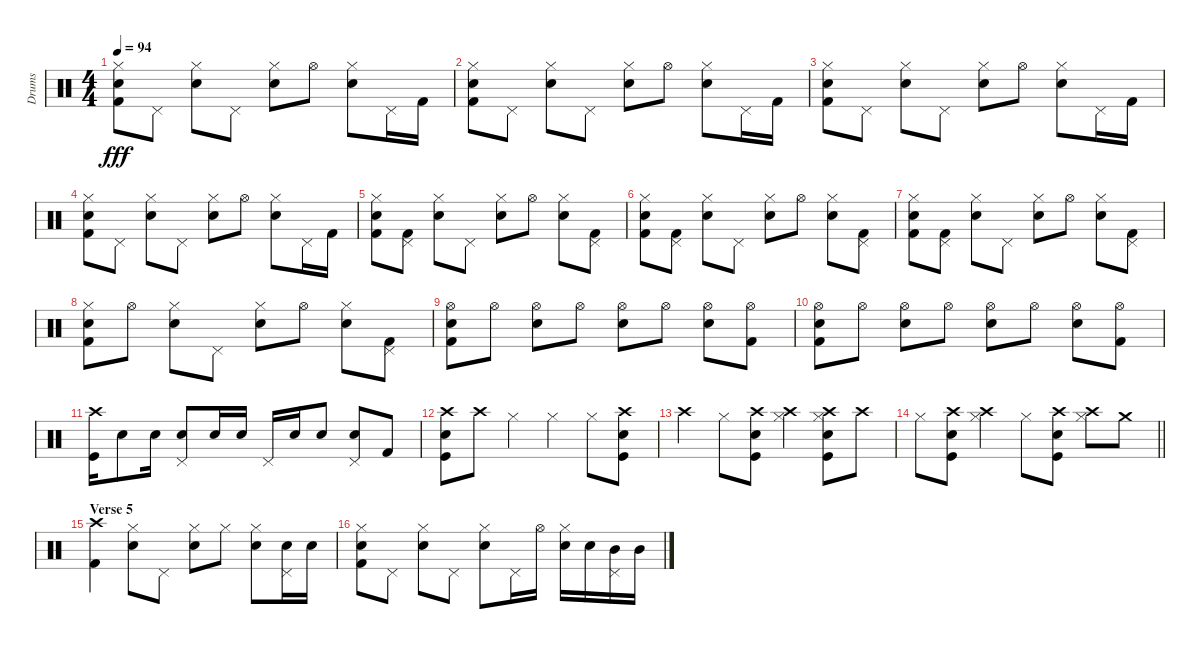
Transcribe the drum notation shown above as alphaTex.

\track ("Drums" "Drums") {instrument percussion}
\staff {score}
\articulation defaults
\ts (4 4)
\tempo 94
\clef neutral
\ks c
("Hi-Hat (closed)" "Electric Snare (hit)" "Kick (hit) 2").8{dy fff} "Pedal Hi-Hat (hit)".8 ("Hi-Hat (closed)" "Electric Snare (hit)").8 "Pedal Hi-Hat (hit)".8 ("Hi-Hat (closed)" "Electric Snare (hit)").8 "Hi-Hat (open)".8 ("Hi-Hat (closed)" "Electric Snare (hit)").8 "Pedal Hi-Hat (hit)".16 "Kick (hit) 2".16 |
("Hi-Hat (closed)" "Electric Snare (hit)" "Kick (hit) 2").8 "Pedal Hi-Hat (hit)".8 ("Hi-Hat (closed)" "Electric Snare (hit)").8 "Pedal Hi-Hat (hit)".8 ("Hi-Hat (closed)" "Electric Snare (hit)").8 "Hi-Hat (open)".8 ("Hi-Hat (closed)" "Electric Snare (hit)").8 "Pedal Hi-Hat (hit)".16 "Kick (hit) 2".16 |
("Hi-Hat (closed)" "Electric Snare (hit)" "Kick (hit) 2").8 "Pedal Hi-Hat (hit)".8 ("Hi-Hat (closed)" "Electric Snare (hit)").8 "Pedal Hi-Hat (hit)".8 ("Hi-Hat (closed)" "Electric Snare (hit)").8 "Hi-Hat (open)".8 ("Hi-Hat (closed)" "Electric Snare (hit)").8 "Pedal Hi-Hat (hit)".16 "Kick (hit) 2".16 |
("Hi-Hat (closed)" "Electric Snare (hit)" "Kick (hit) 2").8 "Pedal Hi-Hat (hit)".8 ("Hi-Hat (closed)" "Electric Snare (hit)").8 "Pedal Hi-Hat (hit)".8 ("Hi-Hat (closed)" "Electric Snare (hit)").8 "Hi-Hat (open)".8 ("Hi-Hat (closed)" "Electric Snare (hit)").8 "Pedal Hi-Hat (hit)".16 "Kick (hit) 2".16 |
("Hi-Hat (closed)" "Electric Snare (hit)" "Kick (hit) 2").8 ("Pedal Hi-Hat (hit)" "Kick (hit) 2").8 ("Hi-Hat (closed)" "Electric Snare (hit)").8 "Pedal Hi-Hat (hit)".8 ("Hi-Hat (closed)" "Electric Snare (hit)").8 "Hi-Hat (open)".8 ("Hi-Hat (closed)" "Electric Snare (hit)").8 ("Pedal Hi-Hat (hit)" "Kick (hit) 2").8 |
("Hi-Hat (closed)" "Electric Snare (hit)" "Kick (hit) 2").8 ("Pedal Hi-Hat (hit)" "Kick (hit) 2").8 ("Hi-Hat (closed)" "Electric Snare (hit)").8 "Pedal Hi-Hat (hit)".8 ("Hi-Hat (closed)" "Electric Snare (hit)").8 "Hi-Hat (open)".8 ("Hi-Hat (closed)" "Electric Snare (hit)").8 ("Pedal Hi-Hat (hit)" "Kick (hit) 2").8 |
("Hi-Hat (closed)" "Electric Snare (hit)" "Kick (hit) 2").8 ("Pedal Hi-Hat (hit)" "Kick (hit) 2").8 ("Hi-Hat (closed)" "Electric Snare (hit)").8 "Pedal Hi-Hat (hit)".8 ("Hi-Hat (closed)" "Electric Snare (hit)").8 "Hi-Hat (open)".8 ("Hi-Hat (closed)" "Electric Snare (hit)").8 ("Pedal Hi-Hat (hit)" "Kick (hit) 2").8 |
("Hi-Hat (closed)" "Electric Snare (hit)" "Kick (hit) 2").8 "Hi-Hat (open)".8 ("Hi-Hat (closed)" "Electric Snare (hit)").8 "Pedal Hi-Hat (hit)".8 ("Hi-Hat (closed)" "Electric Snare (hit)").8 "Hi-Hat (open)".8 ("Hi-Hat (closed)" "Electric Snare (hit)").8 ("Pedal Hi-Hat (hit)" "Kick (hit) 2").8 |
("Hi-Hat (open)" "Electric Snare (hit)" "Kick (hit) 2").8 "Hi-Hat (open)".8 ("Hi-Hat (open)" "Electric Snare (hit)").8 "Hi-Hat (open)".8 ("Hi-Hat (open)" "Electric Snare (hit)").8 "Hi-Hat (open)".8 ("Hi-Hat (open)" "Electric Snare (hit)").8 ("Hi-Hat (open)" "Kick (hit) 2").8 |
("Hi-Hat (open)" "Electric Snare (hit)" "Kick (hit) 2").8 "Hi-Hat (open)".8 ("Hi-Hat (open)" "Electric Snare (hit)").8 "Hi-Hat (open)".8 ("Hi-Hat (open)" "Electric Snare (hit)").8 "Hi-Hat (open)".8 ("Hi-Hat (open)" "Electric Snare (hit)").8 ("Hi-Hat (open)" "Kick (hit) 2").8 |
("Crash high (hit)" "Kick (hit)").16 "Electric Snare (hit)".8 "Electric Snare (hit)".16 ("Pedal Hi-Hat (hit)" "Electric Snare (hit)").8 "Electric Snare (hit)".16 "Electric Snare (hit)".16 "Pedal Hi-Hat (hit)".16 "Electric Snare (hit)".16 "Electric Snare (hit)".8 ("Pedal Hi-Hat (hit)" "Electric Snare (hit)").8 "Kick (hit) 2".8 |
("Crash high (hit)" "Electric Snare (hit)" "Kick (hit)").8 "Crash high (hit)".8 "Hi-Hat (closed)".4 "Hi-Hat (closed)".4 "Hi-Hat (closed)".8 ("Crash high (hit)" "Electric Snare (hit)" "Kick (hit)").8 |
"Crash high (hit)".4 "Hi-Hat (closed)".8 ("Crash high (hit)" "Electric Snare (hit)" "Kick (hit)").8 ("Crash high (hit)" "Hi-Hat (closed)").4 ("Crash high (hit)" "Hi-Hat (closed)" "Electric Snare (hit)" "Kick (hit)").8 "Crash high (hit)".8 |
\barLineRight lightlight "Hi-Hat (closed)".8
("Crash high (hit)" "Electric Snare (hit)" "Kick (hit)").8 ("Crash high (hit)" "Hi-Hat (closed)").4 "Hi-Hat (closed)".8 ("Crash high (hit)" "Electric Snare (hit)" "Kick (hit)").8 ("Crash high (hit)" "Hi-Hat (closed)").8 "Crash medium (hit)".8 |
\section ("" "Verse 5")
("Crash high (hit)" "Kick (hit) 2").4 ("Hi-Hat (closed)" "Electric Snare (hit)").8 "Pedal Hi-Hat (hit)".8 ("Hi-Hat (closed)" "Electric Snare (hit)").8 "Hi-Hat (closed)".8 ("Hi-Hat (closed)" "Electric Snare (hit)").8 ("Pedal Hi-Hat (hit)" "Electric Snare (hit)").16 "Electric Snare (hit)".16 |
("Hi-Hat (closed)" "Electric Snare (hit)" "Kick (hit) 2").8 "Pedal Hi-Hat (hit)".8 ("Hi-Hat (closed)" "Electric Snare (hit)").8 "Pedal Hi-Hat (hit)".8 ("Hi-Hat (closed)" "Electric Snare (hit)").8 "Pedal Hi-Hat (hit)".16 "Hi-Hat (open)".16 ("Hi-Hat (closed)" "Electric Snare (hit)").16 "Electric Snare (hit)".16 ("Pedal Hi-Hat (hit)" "Mid Tom (hit)").16 "Mid Tom (hit)".16
